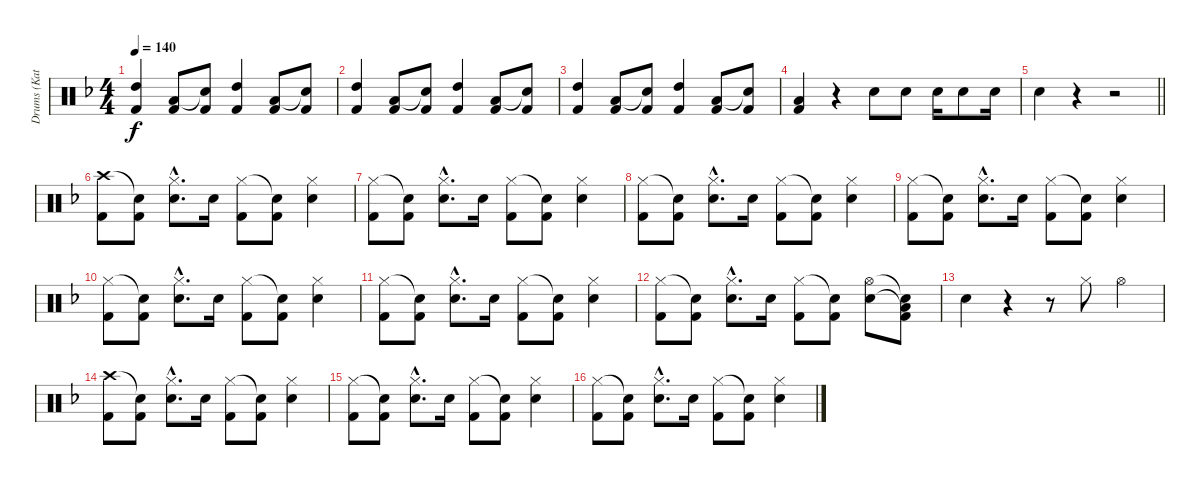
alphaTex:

\track ("Drums (Katsuji)" "Drums (Kat") {instrument percussion}
\staff {score}
\articulation defaults
\ts (4 4)
\tempo 140
\clef neutral
\ks f
("High Tom (hit)" "Kick (hit) 2").4{dy f} ("Low Tom (hit)" "Kick (hit) 2").8 ("Snare (hit)"{t} "Kick (hit) 2").8 ("High Tom (hit)" "Kick (hit) 2").4 ("Low Tom (hit)" "Kick (hit) 2").8 ("Snare (hit)"{t} "Kick (hit) 2").8 |
("High Tom (hit)" "Kick (hit) 2").4 ("Low Tom (hit)" "Kick (hit) 2").8 ("Snare (hit)"{t} "Kick (hit) 2").8 ("High Tom (hit)" "Kick (hit) 2").4 ("Low Tom (hit)" "Kick (hit) 2").8 ("Snare (hit)"{t} "Kick (hit) 2").8 |
("High Tom (hit)" "Kick (hit) 2").4 ("Low Tom (hit)" "Kick (hit) 2").8 ("Snare (hit)"{t} "Kick (hit) 2").8 ("High Tom (hit)" "Kick (hit) 2").4 ("Low Tom (hit)" "Kick (hit) 2").8 ("Snare (hit)"{t} "Kick (hit) 2").8 |
("Low Tom (hit)" "Kick (hit) 2").4 r.4 "Snare (hit) 2".8 "Snare (hit) 2".8 "Snare (hit) 2".16 "Snare (hit) 2".8 "Snare (hit) 2".16 |
\barLineRight lightlight "Snare (hit) 2".4
r.4 r.2 |
("Crash high (hit)" "Kick (hit) 2").8 ("Snare (hit)"{t} "Kick (hit) 2").8 ("Hi-Hat (closed)"{hac} "Snare (hit) 2"{hac}).8{d} "Snare (hit) 2".16 ("Hi-Hat (closed)" "Kick (hit) 2").8 ("Snare (hit)"{t} "Kick (hit) 2").8 ("Hi-Hat (closed)" "Snare (hit) 2").4 |
("Hi-Hat (closed)" "Kick (hit) 2").8 ("Snare (hit)"{t} "Kick (hit) 2").8 ("Hi-Hat (closed)"{hac} "Snare (hit) 2"{hac}).8{d} "Snare (hit) 2".16 ("Hi-Hat (closed)" "Kick (hit) 2").8 ("Snare (hit)"{t} "Kick (hit) 2").8 ("Hi-Hat (closed)" "Snare (hit) 2").4 |
("Hi-Hat (closed)" "Kick (hit) 2").8 ("Snare (hit)"{t} "Kick (hit) 2").8 ("Hi-Hat (closed)"{hac} "Snare (hit) 2"{hac}).8{d} "Snare (hit) 2".16 ("Hi-Hat (closed)" "Kick (hit) 2").8 ("Snare (hit)"{t} "Kick (hit) 2").8 ("Hi-Hat (closed)" "Snare (hit) 2").4 |
("Hi-Hat (closed)" "Kick (hit) 2").8 ("Snare (hit)"{t} "Kick (hit) 2").8 ("Hi-Hat (closed)"{hac} "Snare (hit) 2"{hac}).8{d} "Snare (hit) 2".16 ("Hi-Hat (closed)" "Kick (hit) 2").8 ("Snare (hit)"{t} "Kick (hit) 2").8 ("Hi-Hat (closed)" "Snare (hit) 2").4 |
("Hi-Hat (closed)" "Kick (hit) 2").8 ("Snare (hit)"{t} "Kick (hit) 2").8 ("Hi-Hat (closed)"{hac} "Snare (hit) 2"{hac}).8{d} "Snare (hit) 2".16 ("Hi-Hat (closed)" "Kick (hit) 2").8 ("Snare (hit)"{t} "Kick (hit) 2").8 ("Hi-Hat (closed)" "Snare (hit) 2").4 |
("Hi-Hat (closed)" "Kick (hit) 2").8 ("Snare (hit)"{t} "Kick (hit) 2").8 ("Hi-Hat (closed)"{hac} "Snare (hit) 2"{hac}).8{d} "Snare (hit) 2".16 ("Hi-Hat (closed)" "Kick (hit) 2").8 ("Snare (hit)"{t} "Kick (hit) 2").8 ("Hi-Hat (closed)" "Snare (hit) 2").4 |
("Hi-Hat (closed)" "Kick (hit) 2").8 ("Snare (hit)"{t} "Kick (hit) 2").8 ("Hi-Hat (closed)"{hac} "Snare (hit) 2"{hac}).8{d} "Snare (hit) 2".16 ("Hi-Hat (closed)" "Kick (hit) 2").8 ("Snare (hit)"{t} "Kick (hit) 2").8 ("Hi-Hat (open)" "Snare (hit) 2").8 ("Snare (hit)"{t} "Low Floor Tom (hit)"{t} "Kick (hit) 2").8 |
"Snare (hit) 2".4 r.4 r.8 "Hi-Hat (closed)".8 "Hi-Hat (open)".4 |
("Crash high (hit)" "Kick (hit) 2").8 ("Snare (hit)"{t} "Kick (hit) 2").8 ("Hi-Hat (closed)"{hac} "Snare (hit) 2"{hac}).8{d} "Snare (hit) 2".16 ("Hi-Hat (closed)" "Kick (hit) 2").8 ("Snare (hit)"{t} "Kick (hit) 2").8 ("Hi-Hat (closed)" "Snare (hit) 2").4 |
("Hi-Hat (closed)" "Kick (hit) 2").8 ("Snare (hit)"{t} "Kick (hit) 2").8 ("Hi-Hat (closed)"{hac} "Snare (hit) 2"{hac}).8{d} "Snare (hit) 2".16 ("Hi-Hat (closed)" "Kick (hit) 2").8 ("Snare (hit)"{t} "Kick (hit) 2").8 ("Hi-Hat (closed)" "Snare (hit) 2").4 |
("Hi-Hat (closed)" "Kick (hit) 2").8 ("Snare (hit)"{t} "Kick (hit) 2").8 ("Hi-Hat (closed)"{hac} "Snare (hit) 2"{hac}).8{d} "Snare (hit) 2".16 ("Hi-Hat (closed)" "Kick (hit) 2").8 ("Snare (hit)"{t} "Kick (hit) 2").8 ("Hi-Hat (closed)" "Snare (hit) 2").4
